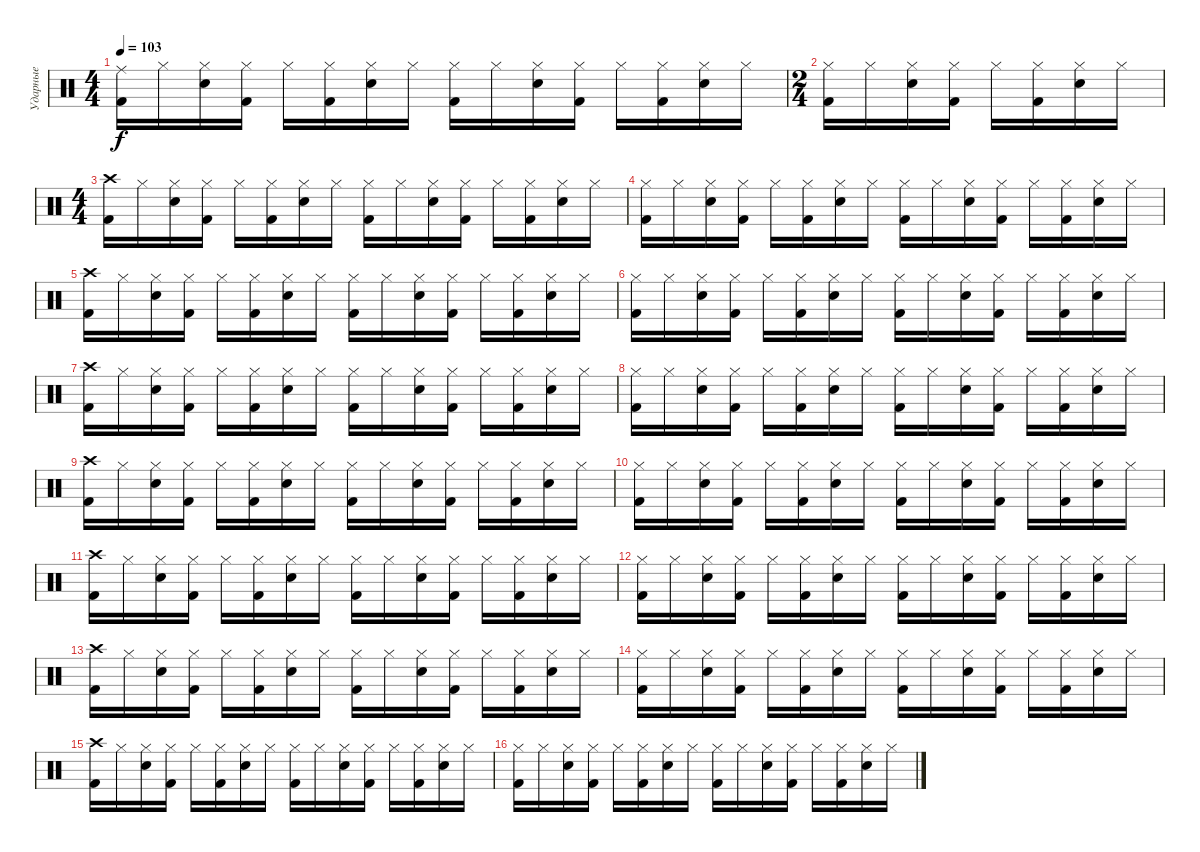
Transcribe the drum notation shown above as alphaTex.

\track ("Ударные" "Ударные") {instrument percussion}
\staff {score}
\articulation defaults
\ts (4 4)
\tempo 103
\clef neutral
\ks c
("Kick (hit) 2" "Ride (middle)").16{dy f} "Hi-Hat (closed)".16 ("Electric Snare (hit)" "Hi-Hat (closed)").16 ("Kick (hit) 2" "Hi-Hat (closed)").16 "Hi-Hat (closed)".16 ("Kick (hit) 2" "Hi-Hat (closed)").16 ("Electric Snare (hit)" "Hi-Hat (closed)").16 "Hi-Hat (closed)".16 ("Kick (hit) 2" "Hi-Hat (closed)").16 "Hi-Hat (closed)".16 ("Electric Snare (hit)" "Hi-Hat (closed)").16 ("Kick (hit) 2" "Hi-Hat (closed)").16 "Hi-Hat (closed)".16 ("Kick (hit) 2" "Hi-Hat (closed)").16 ("Electric Snare (hit)" "Hi-Hat (closed)").16 "Hi-Hat (closed)".16 |
\ts (2 4)
("Kick (hit) 2" "Hi-Hat (closed)").16 "Hi-Hat (closed)".16 ("Electric Snare (hit)" "Hi-Hat (closed)").16 ("Kick (hit) 2" "Hi-Hat (closed)").16 "Hi-Hat (closed)".16 ("Kick (hit) 2" "Hi-Hat (closed)").16 ("Electric Snare (hit)" "Hi-Hat (closed)").16 "Hi-Hat (closed)".16 |
\ts (4 4)
("Kick (hit) 2" "Crash high (hit)").16 "Hi-Hat (closed)".16 ("Electric Snare (hit)" "Hi-Hat (closed)").16 ("Kick (hit) 2" "Hi-Hat (closed)").16 "Hi-Hat (closed)".16 ("Kick (hit) 2" "Hi-Hat (closed)").16 ("Electric Snare (hit)" "Hi-Hat (closed)").16 "Hi-Hat (closed)".16 ("Kick (hit) 2" "Hi-Hat (closed)").16 "Hi-Hat (closed)".16 ("Electric Snare (hit)" "Hi-Hat (closed)").16 ("Kick (hit) 2" "Hi-Hat (closed)").16 "Hi-Hat (closed)".16 ("Kick (hit) 2" "Hi-Hat (closed)").16 ("Electric Snare (hit)" "Hi-Hat (closed)").16 "Hi-Hat (closed)".16 |
("Kick (hit) 2" "Hi-Hat (closed)").16 "Hi-Hat (closed)".16 ("Electric Snare (hit)" "Hi-Hat (closed)").16 ("Kick (hit) 2" "Hi-Hat (closed)").16 "Hi-Hat (closed)".16 ("Kick (hit) 2" "Hi-Hat (closed)").16 ("Electric Snare (hit)" "Hi-Hat (closed)").16 "Hi-Hat (closed)".16 ("Kick (hit) 2" "Hi-Hat (closed)").16 "Hi-Hat (closed)".16 ("Electric Snare (hit)" "Hi-Hat (closed)").16 ("Kick (hit) 2" "Hi-Hat (closed)").16 "Hi-Hat (closed)".16 ("Kick (hit) 2" "Hi-Hat (closed)").16 ("Electric Snare (hit)" "Hi-Hat (closed)").16 "Hi-Hat (closed)".16 |
("Kick (hit) 2" "Crash high (hit)").16 "Hi-Hat (closed)".16 ("Electric Snare (hit)" "Hi-Hat (closed)").16 ("Kick (hit) 2" "Hi-Hat (closed)").16 "Hi-Hat (closed)".16 ("Kick (hit) 2" "Hi-Hat (closed)").16 ("Electric Snare (hit)" "Hi-Hat (closed)").16 "Hi-Hat (closed)".16 ("Kick (hit) 2" "Hi-Hat (closed)").16 "Hi-Hat (closed)".16 ("Electric Snare (hit)" "Hi-Hat (closed)").16 ("Kick (hit) 2" "Hi-Hat (closed)").16 "Hi-Hat (closed)".16 ("Kick (hit) 2" "Hi-Hat (closed)").16 ("Electric Snare (hit)" "Hi-Hat (closed)").16 "Hi-Hat (closed)".16 |
("Kick (hit) 2" "Hi-Hat (closed)").16 "Hi-Hat (closed)".16 ("Electric Snare (hit)" "Hi-Hat (closed)").16 ("Kick (hit) 2" "Hi-Hat (closed)").16 "Hi-Hat (closed)".16 ("Kick (hit) 2" "Hi-Hat (closed)").16 ("Electric Snare (hit)" "Hi-Hat (closed)").16 "Hi-Hat (closed)".16 ("Kick (hit) 2" "Hi-Hat (closed)").16 "Hi-Hat (closed)".16 ("Electric Snare (hit)" "Hi-Hat (closed)").16 ("Kick (hit) 2" "Hi-Hat (closed)").16 "Hi-Hat (closed)".16 ("Kick (hit) 2" "Hi-Hat (closed)").16 ("Electric Snare (hit)" "Hi-Hat (closed)").16 "Hi-Hat (closed)".16 |
("Kick (hit) 2" "Crash high (hit)").16 "Hi-Hat (closed)".16 ("Electric Snare (hit)" "Hi-Hat (closed)").16 ("Kick (hit) 2" "Hi-Hat (closed)").16 "Hi-Hat (closed)".16 ("Kick (hit) 2" "Hi-Hat (closed)").16 ("Electric Snare (hit)" "Hi-Hat (closed)").16 "Hi-Hat (closed)".16 ("Kick (hit) 2" "Hi-Hat (closed)").16 "Hi-Hat (closed)".16 ("Electric Snare (hit)" "Hi-Hat (closed)").16 ("Kick (hit) 2" "Hi-Hat (closed)").16 "Hi-Hat (closed)".16 ("Kick (hit) 2" "Hi-Hat (closed)").16 ("Electric Snare (hit)" "Hi-Hat (closed)").16 "Hi-Hat (closed)".16 |
("Kick (hit) 2" "Hi-Hat (closed)").16 "Hi-Hat (closed)".16 ("Electric Snare (hit)" "Hi-Hat (closed)").16 ("Kick (hit) 2" "Hi-Hat (closed)").16 "Hi-Hat (closed)".16 ("Kick (hit) 2" "Hi-Hat (closed)").16 ("Electric Snare (hit)" "Hi-Hat (closed)").16 "Hi-Hat (closed)".16 ("Kick (hit) 2" "Hi-Hat (closed)").16 "Hi-Hat (closed)".16 ("Electric Snare (hit)" "Hi-Hat (closed)").16 ("Kick (hit) 2" "Hi-Hat (closed)").16 "Hi-Hat (closed)".16 ("Kick (hit) 2" "Hi-Hat (closed)").16 ("Electric Snare (hit)" "Hi-Hat (closed)").16 "Hi-Hat (closed)".16 |
("Kick (hit) 2" "Crash high (hit)").16 "Hi-Hat (closed)".16 ("Electric Snare (hit)" "Hi-Hat (closed)").16 ("Kick (hit) 2" "Hi-Hat (closed)").16 "Hi-Hat (closed)".16 ("Kick (hit) 2" "Hi-Hat (closed)").16 ("Electric Snare (hit)" "Hi-Hat (closed)").16 "Hi-Hat (closed)".16 ("Kick (hit) 2" "Hi-Hat (closed)").16 "Hi-Hat (closed)".16 ("Electric Snare (hit)" "Hi-Hat (closed)").16 ("Kick (hit) 2" "Hi-Hat (closed)").16 "Hi-Hat (closed)".16 ("Kick (hit) 2" "Hi-Hat (closed)").16 ("Electric Snare (hit)" "Hi-Hat (closed)").16 "Hi-Hat (closed)".16 |
("Kick (hit) 2" "Hi-Hat (closed)").16 "Hi-Hat (closed)".16 ("Electric Snare (hit)" "Hi-Hat (closed)").16 ("Kick (hit) 2" "Hi-Hat (closed)").16 "Hi-Hat (closed)".16 ("Kick (hit) 2" "Hi-Hat (closed)").16 ("Electric Snare (hit)" "Hi-Hat (closed)").16 "Hi-Hat (closed)".16 ("Kick (hit) 2" "Hi-Hat (closed)").16 "Hi-Hat (closed)".16 ("Electric Snare (hit)" "Hi-Hat (closed)").16 ("Kick (hit) 2" "Hi-Hat (closed)").16 "Hi-Hat (closed)".16 ("Kick (hit) 2" "Hi-Hat (closed)").16 ("Electric Snare (hit)" "Hi-Hat (closed)").16 "Hi-Hat (closed)".16 |
("Kick (hit) 2" "Crash high (hit)").16 "Hi-Hat (closed)".16 ("Electric Snare (hit)" "Hi-Hat (closed)").16 ("Kick (hit) 2" "Hi-Hat (closed)").16 "Hi-Hat (closed)".16 ("Kick (hit) 2" "Hi-Hat (closed)").16 ("Electric Snare (hit)" "Hi-Hat (closed)").16 "Hi-Hat (closed)".16 ("Kick (hit) 2" "Hi-Hat (closed)").16 "Hi-Hat (closed)".16 ("Electric Snare (hit)" "Hi-Hat (closed)").16 ("Kick (hit) 2" "Hi-Hat (closed)").16 "Hi-Hat (closed)".16 ("Kick (hit) 2" "Hi-Hat (closed)").16 ("Electric Snare (hit)" "Hi-Hat (closed)").16 "Hi-Hat (closed)".16 |
("Kick (hit) 2" "Hi-Hat (closed)").16 "Hi-Hat (closed)".16 ("Electric Snare (hit)" "Hi-Hat (closed)").16 ("Kick (hit) 2" "Hi-Hat (closed)").16 "Hi-Hat (closed)".16 ("Kick (hit) 2" "Hi-Hat (closed)").16 ("Electric Snare (hit)" "Hi-Hat (closed)").16 "Hi-Hat (closed)".16 ("Kick (hit) 2" "Hi-Hat (closed)").16 "Hi-Hat (closed)".16 ("Electric Snare (hit)" "Hi-Hat (closed)").16 ("Kick (hit) 2" "Hi-Hat (closed)").16 "Hi-Hat (closed)".16 ("Kick (hit) 2" "Hi-Hat (closed)").16 ("Electric Snare (hit)" "Hi-Hat (closed)").16 "Hi-Hat (closed)".16 |
("Kick (hit) 2" "Crash high (hit)").16 "Hi-Hat (closed)".16 ("Electric Snare (hit)" "Hi-Hat (closed)").16 ("Kick (hit) 2" "Hi-Hat (closed)").16 "Hi-Hat (closed)".16 ("Kick (hit) 2" "Hi-Hat (closed)").16 ("Electric Snare (hit)" "Hi-Hat (closed)").16 "Hi-Hat (closed)".16 ("Kick (hit) 2" "Hi-Hat (closed)").16 "Hi-Hat (closed)".16 ("Electric Snare (hit)" "Hi-Hat (closed)").16 ("Kick (hit) 2" "Hi-Hat (closed)").16 "Hi-Hat (closed)".16 ("Kick (hit) 2" "Hi-Hat (closed)").16 ("Electric Snare (hit)" "Hi-Hat (closed)").16 "Hi-Hat (closed)".16 |
("Kick (hit) 2" "Hi-Hat (closed)").16 "Hi-Hat (closed)".16 ("Electric Snare (hit)" "Hi-Hat (closed)").16 ("Kick (hit) 2" "Hi-Hat (closed)").16 "Hi-Hat (closed)".16 ("Kick (hit) 2" "Hi-Hat (closed)").16 ("Electric Snare (hit)" "Hi-Hat (closed)").16 "Hi-Hat (closed)".16 ("Kick (hit) 2" "Hi-Hat (closed)").16 "Hi-Hat (closed)".16 ("Electric Snare (hit)" "Hi-Hat (closed)").16 ("Kick (hit) 2" "Hi-Hat (closed)").16 "Hi-Hat (closed)".16 ("Kick (hit) 2" "Hi-Hat (closed)").16 ("Electric Snare (hit)" "Hi-Hat (closed)").16 "Hi-Hat (closed)".16 |
("Kick (hit) 2" "Crash high (hit)").16 "Hi-Hat (closed)".16 ("Electric Snare (hit)" "Hi-Hat (closed)").16 ("Kick (hit) 2" "Hi-Hat (closed)").16 "Hi-Hat (closed)".16 ("Kick (hit) 2" "Hi-Hat (closed)").16 ("Electric Snare (hit)" "Hi-Hat (closed)").16 "Hi-Hat (closed)".16 ("Kick (hit) 2" "Hi-Hat (closed)").16 "Hi-Hat (closed)".16 ("Electric Snare (hit)" "Hi-Hat (closed)").16 ("Kick (hit) 2" "Hi-Hat (closed)").16 "Hi-Hat (closed)".16 ("Kick (hit) 2" "Hi-Hat (closed)").16 ("Electric Snare (hit)" "Hi-Hat (closed)").16 "Hi-Hat (closed)".16 |
("Kick (hit) 2" "Hi-Hat (closed)").16 "Hi-Hat (closed)".16 ("Electric Snare (hit)" "Hi-Hat (closed)").16 ("Kick (hit) 2" "Hi-Hat (closed)").16 "Hi-Hat (closed)".16 ("Kick (hit) 2" "Hi-Hat (closed)").16 ("Electric Snare (hit)" "Hi-Hat (closed)").16 "Hi-Hat (closed)".16 ("Kick (hit) 2" "Hi-Hat (closed)").16 "Hi-Hat (closed)".16 ("Electric Snare (hit)" "Hi-Hat (closed)").16 ("Kick (hit) 2" "Hi-Hat (closed)").16 "Hi-Hat (closed)".16 ("Kick (hit) 2" "Hi-Hat (closed)").16 ("Electric Snare (hit)" "Hi-Hat (closed)").16 "Hi-Hat (closed)".16
